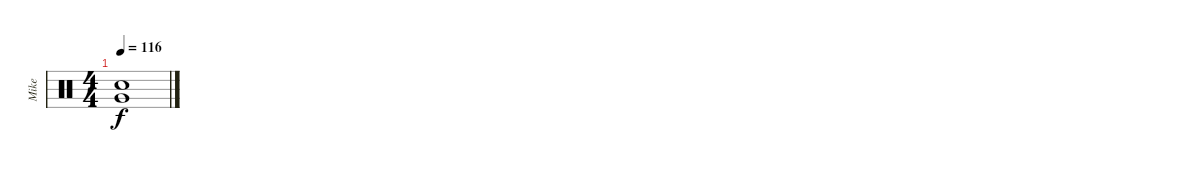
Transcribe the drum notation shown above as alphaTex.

\track ("Mike" "Mike") {instrument percussion}
\staff {score}
\articulation defaults
\ts (4 4)
\tempo 116
\clef neutral
\ks c
("Snare (hit) 2" "Very Low Tom (hit)").1{dy f}
